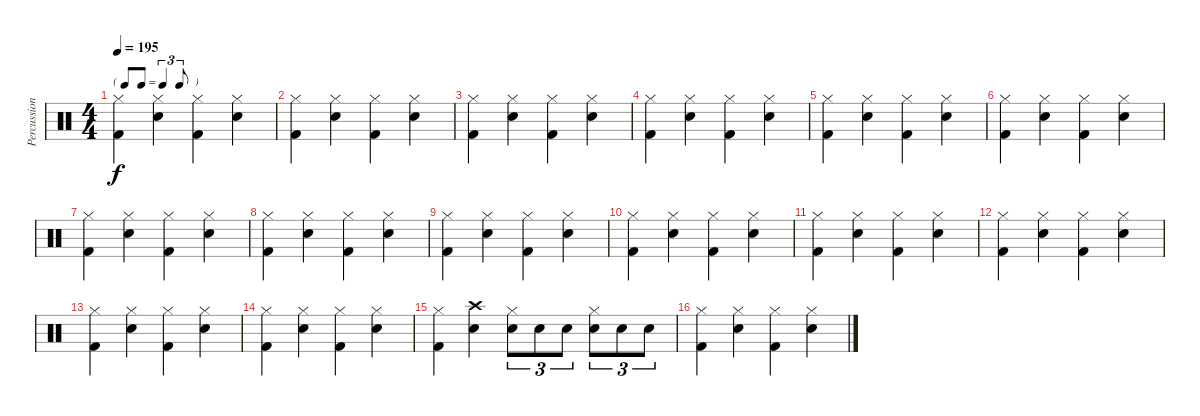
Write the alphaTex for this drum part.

\track ("Percussions" "Percussion") {instrument percussion}
\staff {score}
\articulation defaults
\ts (4 4)
\tf triplet8th
\tempo 195
\clef neutral
\ks c
("Hi-Hat (closed)" "Kick (hit) 2").4{dy f} ("Snare (hit) 2" "Hi-Hat (closed)").4 ("Hi-Hat (closed)" "Kick (hit) 2").4 ("Snare (hit) 2" "Hi-Hat (closed)").4 |
("Hi-Hat (closed)" "Kick (hit) 2").4 ("Snare (hit) 2" "Hi-Hat (closed)").4 ("Hi-Hat (closed)" "Kick (hit) 2").4 ("Snare (hit) 2" "Hi-Hat (closed)").4 |
("Hi-Hat (closed)" "Kick (hit) 2").4 ("Snare (hit) 2" "Hi-Hat (closed)").4 ("Hi-Hat (closed)" "Kick (hit) 2").4 ("Snare (hit) 2" "Hi-Hat (closed)").4 |
("Hi-Hat (closed)" "Kick (hit) 2").4 ("Snare (hit) 2" "Hi-Hat (closed)").4 ("Hi-Hat (closed)" "Kick (hit) 2").4 ("Snare (hit) 2" "Hi-Hat (closed)").4 |
("Hi-Hat (closed)" "Kick (hit) 2").4 ("Snare (hit) 2" "Hi-Hat (closed)").4 ("Hi-Hat (closed)" "Kick (hit) 2").4 ("Snare (hit) 2" "Hi-Hat (closed)").4 |
("Hi-Hat (closed)" "Kick (hit) 2").4 ("Snare (hit) 2" "Hi-Hat (closed)").4 ("Hi-Hat (closed)" "Kick (hit) 2").4 ("Snare (hit) 2" "Hi-Hat (closed)").4 |
("Hi-Hat (closed)" "Kick (hit) 2").4 ("Snare (hit) 2" "Hi-Hat (closed)").4 ("Hi-Hat (closed)" "Kick (hit) 2").4 ("Snare (hit) 2" "Hi-Hat (closed)").4 |
("Hi-Hat (closed)" "Kick (hit) 2").4 ("Snare (hit) 2" "Hi-Hat (closed)").4 ("Hi-Hat (closed)" "Kick (hit) 2").4 ("Snare (hit) 2" "Hi-Hat (closed)").4 |
("Hi-Hat (closed)" "Kick (hit) 2").4 ("Snare (hit) 2" "Hi-Hat (closed)").4 ("Hi-Hat (closed)" "Kick (hit) 2").4 ("Snare (hit) 2" "Hi-Hat (closed)").4 |
("Hi-Hat (closed)" "Kick (hit) 2").4 ("Snare (hit) 2" "Hi-Hat (closed)").4 ("Hi-Hat (closed)" "Kick (hit) 2").4 ("Snare (hit) 2" "Hi-Hat (closed)").4 |
("Hi-Hat (closed)" "Kick (hit) 2").4 ("Snare (hit) 2" "Hi-Hat (closed)").4 ("Hi-Hat (closed)" "Kick (hit) 2").4 ("Snare (hit) 2" "Hi-Hat (closed)").4 |
("Hi-Hat (closed)" "Kick (hit) 2").4 ("Snare (hit) 2" "Hi-Hat (closed)").4 ("Hi-Hat (closed)" "Kick (hit) 2").4 ("Snare (hit) 2" "Hi-Hat (closed)").4 |
("Hi-Hat (closed)" "Kick (hit) 2").4 ("Snare (hit) 2" "Hi-Hat (closed)").4 ("Hi-Hat (closed)" "Kick (hit) 2").4 ("Snare (hit) 2" "Hi-Hat (closed)").4 |
("Hi-Hat (closed)" "Kick (hit) 2").4 ("Snare (hit) 2" "Hi-Hat (closed)").4 ("Hi-Hat (closed)" "Kick (hit) 2").4 ("Snare (hit) 2" "Hi-Hat (closed)").4 |
("Hi-Hat (closed)" "Kick (hit) 2").4 ("Snare (hit) 2" "Crash high (hit)").4 ("Snare (hit) 2" "Hi-Hat (closed)").8{tu (3 2)} "Snare (hit) 2".8{tu (3 2)} "Snare (hit) 2".8{tu (3 2)} ("Snare (hit) 2" "Hi-Hat (closed)").8{tu (3 2)} "Snare (hit) 2".8{tu (3 2)} "Snare (hit) 2".8{tu (3 2)} |
("Hi-Hat (closed)" "Kick (hit) 2").4 ("Snare (hit) 2" "Hi-Hat (closed)").4 ("Hi-Hat (closed)" "Kick (hit) 2").4 ("Snare (hit) 2" "Hi-Hat (closed)").4
